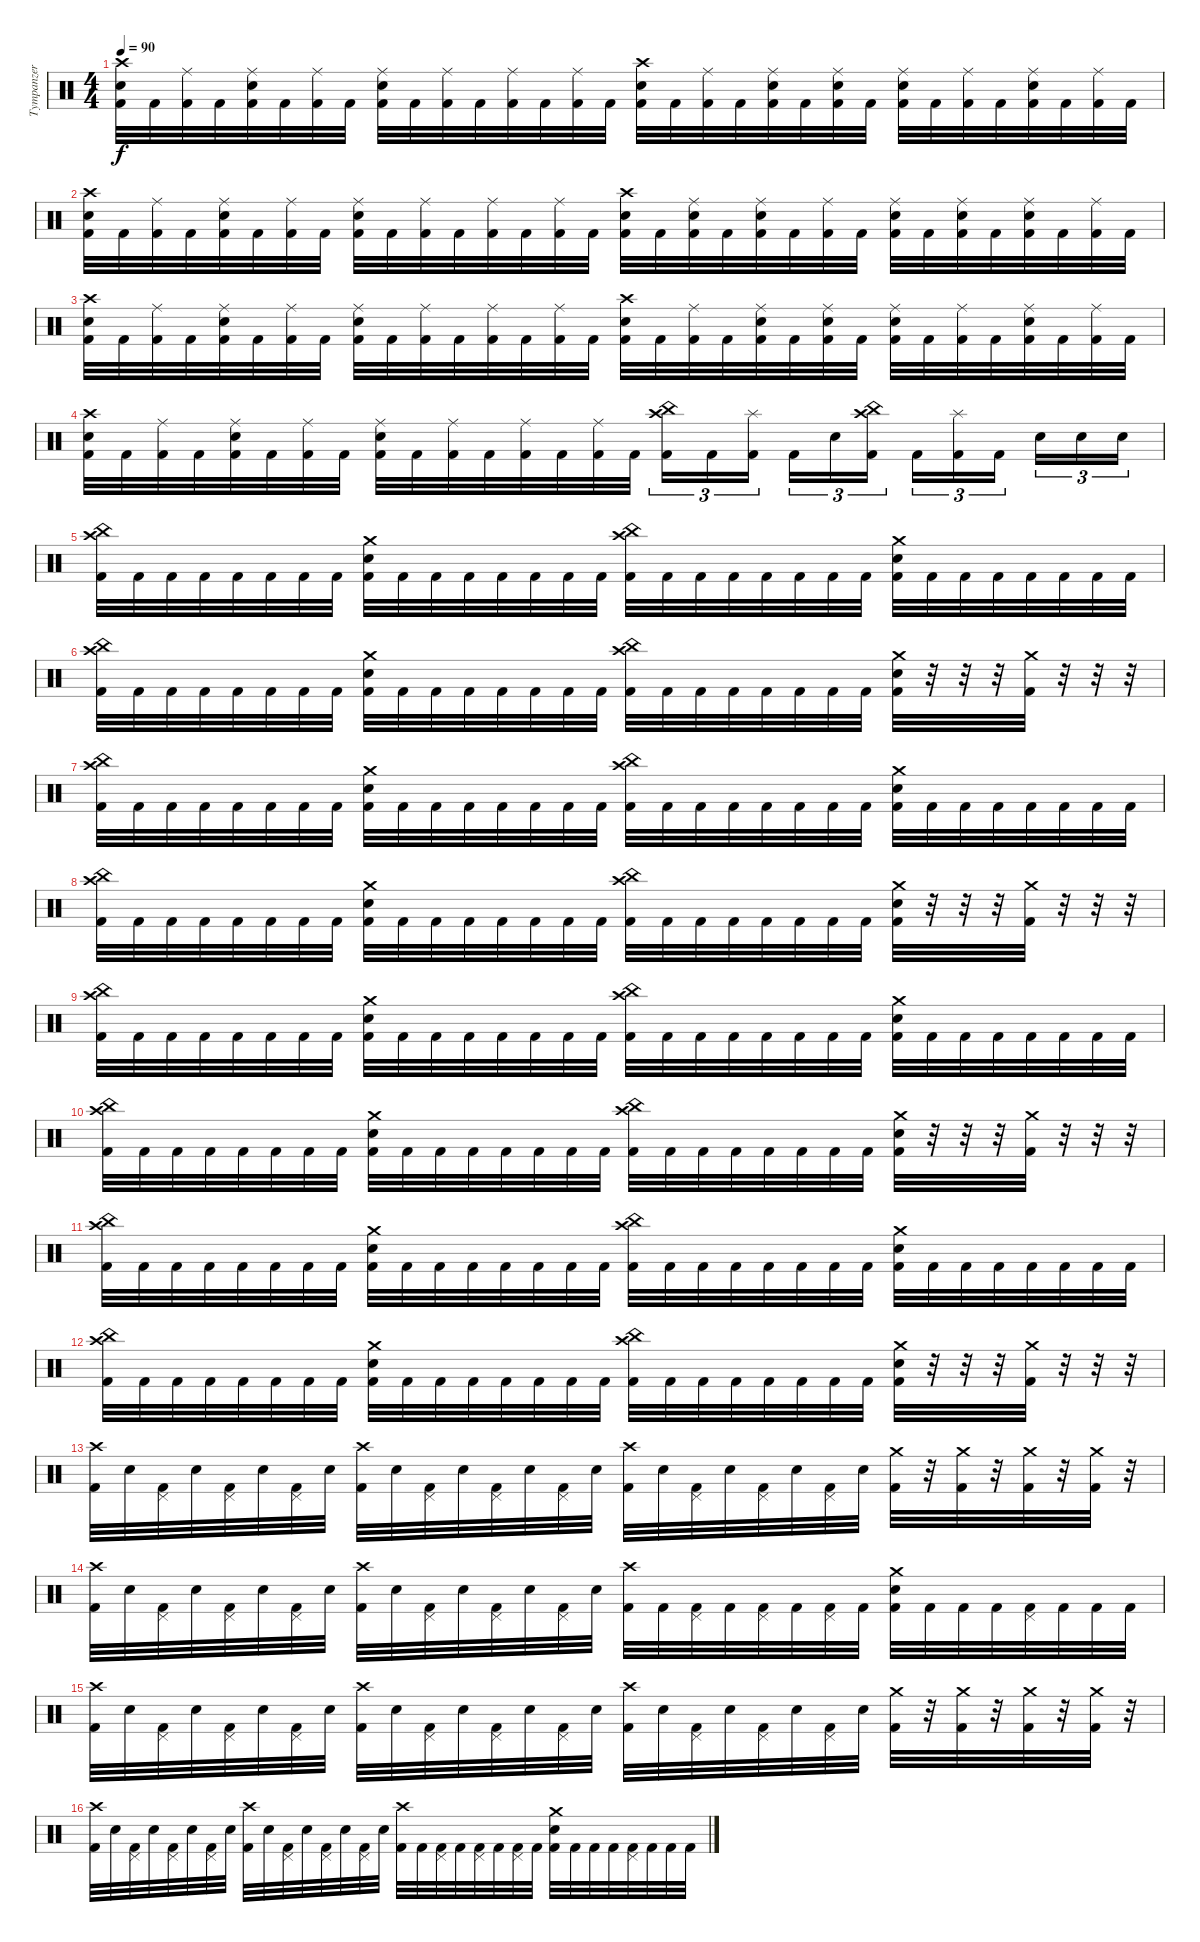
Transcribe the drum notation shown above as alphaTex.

\track ("Tympanzer" "Tympanzer") {instrument percussion}
\staff {score}
\articulation defaults
\ts (4 4)
\tempo 90
\clef neutral
\ks c
("Crash high (hit)" "Electric Snare (hit)" "Kick (hit) 2").32{dy f} "Kick (hit) 2".32 ("Ride (middle)" "Kick (hit) 2").32 "Kick (hit) 2".32 ("Ride (middle)" "Electric Snare (hit)" "Kick (hit) 2").32 "Kick (hit) 2".32 ("Ride (middle)" "Kick (hit) 2").32 "Kick (hit) 2".32 ("Ride (middle)" "Electric Snare (hit)" "Kick (hit) 2").32 "Kick (hit) 2".32 ("Ride (middle)" "Kick (hit) 2").32 "Kick (hit) 2".32 ("Ride (middle)" "Kick (hit) 2").32 "Kick (hit) 2".32 ("Ride (middle)" "Kick (hit) 2").32 "Kick (hit) 2".32 ("Crash high (hit)" "Electric Snare (hit)" "Kick (hit) 2").32 "Kick (hit) 2".32 ("Ride (middle)" "Kick (hit) 2").32 "Kick (hit) 2".32 ("Ride (middle)" "Electric Snare (hit)" "Kick (hit) 2").32 "Kick (hit) 2".32 ("Ride (middle)" "Electric Snare (hit)" "Kick (hit) 2").32 "Kick (hit) 2".32 ("Ride (middle)" "Electric Snare (hit)" "Kick (hit) 2").32 "Kick (hit) 2".32 ("Ride (middle)" "Kick (hit) 2").32 "Kick (hit) 2".32 ("Ride (middle)" "Electric Snare (hit)" "Kick (hit) 2").32 "Kick (hit) 2".32 ("Ride (middle)" "Kick (hit) 2").32 "Kick (hit) 2".32 |
("Crash high (hit)" "Electric Snare (hit)" "Kick (hit) 2").32 "Kick (hit) 2".32 ("Ride (middle)" "Kick (hit) 2").32 "Kick (hit) 2".32 ("Ride (middle)" "Electric Snare (hit)" "Kick (hit) 2").32 "Kick (hit) 2".32 ("Ride (middle)" "Kick (hit) 2").32 "Kick (hit) 2".32 ("Ride (middle)" "Electric Snare (hit)" "Kick (hit) 2").32 "Kick (hit) 2".32 ("Ride (middle)" "Kick (hit) 2").32 "Kick (hit) 2".32 ("Ride (middle)" "Kick (hit) 2").32 "Kick (hit) 2".32 ("Ride (middle)" "Kick (hit) 2").32 "Kick (hit) 2".32 ("Crash high (hit)" "Electric Snare (hit)" "Kick (hit) 2").32 "Kick (hit) 2".32 ("Ride (middle)" "Electric Snare (hit)" "Kick (hit) 2").32 "Kick (hit) 2".32 ("Ride (middle)" "Electric Snare (hit)" "Kick (hit) 2").32 "Kick (hit) 2".32 ("Ride (middle)" "Kick (hit) 2").32 "Kick (hit) 2".32 ("Ride (middle)" "Electric Snare (hit)" "Kick (hit) 2").32 "Kick (hit) 2".32 ("Ride (middle)" "Electric Snare (hit)" "Kick (hit) 2").32 "Kick (hit) 2".32 ("Ride (middle)" "Electric Snare (hit)" "Kick (hit) 2").32 "Kick (hit) 2".32 ("Ride (middle)" "Kick (hit) 2").32 "Kick (hit) 2".32 |
("Crash high (hit)" "Electric Snare (hit)" "Kick (hit) 2").32 "Kick (hit) 2".32 ("Ride (middle)" "Kick (hit) 2").32 "Kick (hit) 2".32 ("Ride (middle)" "Electric Snare (hit)" "Kick (hit) 2").32 "Kick (hit) 2".32 ("Ride (middle)" "Kick (hit) 2").32 "Kick (hit) 2".32 ("Ride (middle)" "Electric Snare (hit)" "Kick (hit) 2").32 "Kick (hit) 2".32 ("Ride (middle)" "Kick (hit) 2").32 "Kick (hit) 2".32 ("Ride (middle)" "Kick (hit) 2").32 "Kick (hit) 2".32 ("Ride (middle)" "Kick (hit) 2").32 "Kick (hit) 2".32 ("Crash high (hit)" "Electric Snare (hit)" "Kick (hit) 2").32 "Kick (hit) 2".32 ("Ride (middle)" "Kick (hit) 2").32 "Kick (hit) 2".32 ("Ride (middle)" "Electric Snare (hit)" "Kick (hit) 2").32 "Kick (hit) 2".32 ("Ride (middle)" "Electric Snare (hit)" "Kick (hit) 2").32 "Kick (hit) 2".32 ("Ride (middle)" "Electric Snare (hit)" "Kick (hit) 2").32 "Kick (hit) 2".32 ("Ride (middle)" "Kick (hit) 2").32 "Kick (hit) 2".32 ("Ride (middle)" "Electric Snare (hit)" "Kick (hit) 2").32 "Kick (hit) 2".32 ("Ride (middle)" "Kick (hit) 2").32 "Kick (hit) 2".32 |
("Crash high (hit)" "Electric Snare (hit)" "Kick (hit) 2").32 "Kick (hit) 2".32 ("Ride (middle)" "Kick (hit) 2").32 "Kick (hit) 2".32 ("Ride (middle)" "Electric Snare (hit)" "Kick (hit) 2").32 "Kick (hit) 2".32 ("Ride (middle)" "Kick (hit) 2").32 "Kick (hit) 2".32 ("Ride (middle)" "Electric Snare (hit)" "Kick (hit) 2").32 "Kick (hit) 2".32 ("Ride (middle)" "Kick (hit) 2").32 "Kick (hit) 2".32 ("Ride (middle)" "Kick (hit) 2").32 "Kick (hit) 2".32 ("Ride (middle)" "Kick (hit) 2").32 "Kick (hit) 2".32 ("China (hit)" "Crash high (hit)" "Kick (hit) 2").16{tu (3 2)} "Kick (hit) 2".16{tu (3 2)} ("Splash (hit)" "Kick (hit) 2").16{tu (3 2) beam splitsecondary} "Kick (hit) 2".16{tu (3 2)} "Electric Snare (hit)".16{tu (3 2)} ("China (hit)" "Crash high (hit)" "Kick (hit) 2").16{tu (3 2)} "Kick (hit) 2".16{tu (3 2)} ("Splash (hit)" "Kick (hit) 2").16{tu (3 2)} "Kick (hit) 2".16{tu (3 2) beam splitsecondary} "Electric Snare (hit)".16{tu (3 2)} "Electric Snare (hit)".16{tu (3 2)} "Electric Snare (hit)".16{tu (3 2)} |
("China (hit)" "Crash high (hit)" "Kick (hit) 2").32 "Kick (hit) 2".32 "Kick (hit) 2".32 "Kick (hit) 2".32 "Kick (hit) 2".32 "Kick (hit) 2".32 "Kick (hit) 2".32 "Kick (hit) 2".32 ("Crash medium (hit)" "Electric Snare (hit)" "Kick (hit) 2").32 "Kick (hit) 2".32 "Kick (hit) 2".32 "Kick (hit) 2".32 "Kick (hit) 2".32 "Kick (hit) 2".32 "Kick (hit) 2".32 "Kick (hit) 2".32 ("China (hit)" "Crash high (hit)" "Kick (hit) 2").32 "Kick (hit) 2".32 "Kick (hit) 2".32 "Kick (hit) 2".32 "Kick (hit) 2".32 "Kick (hit) 2".32 "Kick (hit) 2".32 "Kick (hit) 2".32 ("Crash medium (hit)" "Electric Snare (hit)" "Kick (hit) 2").32 "Kick (hit) 2".32 "Kick (hit) 2".32 "Kick (hit) 2".32 "Kick (hit) 2".32 "Kick (hit) 2".32 "Kick (hit) 2".32 "Kick (hit) 2".32 |
("China (hit)" "Crash high (hit)" "Kick (hit) 2").32 "Kick (hit) 2".32 "Kick (hit) 2".32 "Kick (hit) 2".32 "Kick (hit) 2".32 "Kick (hit) 2".32 "Kick (hit) 2".32 "Kick (hit) 2".32 ("Crash medium (hit)" "Electric Snare (hit)" "Kick (hit) 2").32 "Kick (hit) 2".32 "Kick (hit) 2".32 "Kick (hit) 2".32 "Kick (hit) 2".32 "Kick (hit) 2".32 "Kick (hit) 2".32 "Kick (hit) 2".32 ("China (hit)" "Crash high (hit)" "Kick (hit) 2").32 "Kick (hit) 2".32 "Kick (hit) 2".32 "Kick (hit) 2".32 "Kick (hit) 2".32 "Kick (hit) 2".32 "Kick (hit) 2".32 "Kick (hit) 2".32 ("Crash medium (hit)" "Electric Snare (hit)" "Kick (hit) 2").32 r.32 r.32 r.32 ("Crash medium (hit)" "Kick (hit) 2").32 r.32 r.32 r.32 |
("China (hit)" "Crash high (hit)" "Kick (hit) 2").32 "Kick (hit) 2".32 "Kick (hit) 2".32 "Kick (hit) 2".32 "Kick (hit) 2".32 "Kick (hit) 2".32 "Kick (hit) 2".32 "Kick (hit) 2".32 ("Crash medium (hit)" "Electric Snare (hit)" "Kick (hit) 2").32 "Kick (hit) 2".32 "Kick (hit) 2".32 "Kick (hit) 2".32 "Kick (hit) 2".32 "Kick (hit) 2".32 "Kick (hit) 2".32 "Kick (hit) 2".32 ("China (hit)" "Crash high (hit)" "Kick (hit) 2").32 "Kick (hit) 2".32 "Kick (hit) 2".32 "Kick (hit) 2".32 "Kick (hit) 2".32 "Kick (hit) 2".32 "Kick (hit) 2".32 "Kick (hit) 2".32 ("Crash medium (hit)" "Electric Snare (hit)" "Kick (hit) 2").32 "Kick (hit) 2".32 "Kick (hit) 2".32 "Kick (hit) 2".32 "Kick (hit) 2".32 "Kick (hit) 2".32 "Kick (hit) 2".32 "Kick (hit) 2".32 |
("China (hit)" "Crash high (hit)" "Kick (hit) 2").32 "Kick (hit) 2".32 "Kick (hit) 2".32 "Kick (hit) 2".32 "Kick (hit) 2".32 "Kick (hit) 2".32 "Kick (hit) 2".32 "Kick (hit) 2".32 ("Crash medium (hit)" "Electric Snare (hit)" "Kick (hit) 2").32 "Kick (hit) 2".32 "Kick (hit) 2".32 "Kick (hit) 2".32 "Kick (hit) 2".32 "Kick (hit) 2".32 "Kick (hit) 2".32 "Kick (hit) 2".32 ("China (hit)" "Crash high (hit)" "Kick (hit) 2").32 "Kick (hit) 2".32 "Kick (hit) 2".32 "Kick (hit) 2".32 "Kick (hit) 2".32 "Kick (hit) 2".32 "Kick (hit) 2".32 "Kick (hit) 2".32 ("Crash medium (hit)" "Electric Snare (hit)" "Kick (hit) 2").32 r.32 r.32 r.32 ("Crash medium (hit)" "Kick (hit) 2").32 r.32 r.32 r.32 |
("China (hit)" "Crash high (hit)" "Kick (hit) 2").32 "Kick (hit) 2".32 "Kick (hit) 2".32 "Kick (hit) 2".32 "Kick (hit) 2".32 "Kick (hit) 2".32 "Kick (hit) 2".32 "Kick (hit) 2".32 ("Crash medium (hit)" "Electric Snare (hit)" "Kick (hit) 2").32 "Kick (hit) 2".32 "Kick (hit) 2".32 "Kick (hit) 2".32 "Kick (hit) 2".32 "Kick (hit) 2".32 "Kick (hit) 2".32 "Kick (hit) 2".32 ("China (hit)" "Crash high (hit)" "Kick (hit) 2").32 "Kick (hit) 2".32 "Kick (hit) 2".32 "Kick (hit) 2".32 "Kick (hit) 2".32 "Kick (hit) 2".32 "Kick (hit) 2".32 "Kick (hit) 2".32 ("Crash medium (hit)" "Electric Snare (hit)" "Kick (hit) 2").32 "Kick (hit) 2".32 "Kick (hit) 2".32 "Kick (hit) 2".32 "Kick (hit) 2".32 "Kick (hit) 2".32 "Kick (hit) 2".32 "Kick (hit) 2".32 |
("China (hit)" "Crash high (hit)" "Kick (hit) 2").32 "Kick (hit) 2".32 "Kick (hit) 2".32 "Kick (hit) 2".32 "Kick (hit) 2".32 "Kick (hit) 2".32 "Kick (hit) 2".32 "Kick (hit) 2".32 ("Crash medium (hit)" "Electric Snare (hit)" "Kick (hit) 2").32 "Kick (hit) 2".32 "Kick (hit) 2".32 "Kick (hit) 2".32 "Kick (hit) 2".32 "Kick (hit) 2".32 "Kick (hit) 2".32 "Kick (hit) 2".32 ("China (hit)" "Crash high (hit)" "Kick (hit) 2").32 "Kick (hit) 2".32 "Kick (hit) 2".32 "Kick (hit) 2".32 "Kick (hit) 2".32 "Kick (hit) 2".32 "Kick (hit) 2".32 "Kick (hit) 2".32 ("Crash medium (hit)" "Electric Snare (hit)" "Kick (hit) 2").32 r.32 r.32 r.32 ("Crash medium (hit)" "Kick (hit) 2").32 r.32 r.32 r.32 |
("China (hit)" "Crash high (hit)" "Kick (hit) 2").32 "Kick (hit) 2".32 "Kick (hit) 2".32 "Kick (hit) 2".32 "Kick (hit) 2".32 "Kick (hit) 2".32 "Kick (hit) 2".32 "Kick (hit) 2".32 ("Crash medium (hit)" "Electric Snare (hit)" "Kick (hit) 2").32 "Kick (hit) 2".32 "Kick (hit) 2".32 "Kick (hit) 2".32 "Kick (hit) 2".32 "Kick (hit) 2".32 "Kick (hit) 2".32 "Kick (hit) 2".32 ("China (hit)" "Crash high (hit)" "Kick (hit) 2").32 "Kick (hit) 2".32 "Kick (hit) 2".32 "Kick (hit) 2".32 "Kick (hit) 2".32 "Kick (hit) 2".32 "Kick (hit) 2".32 "Kick (hit) 2".32 ("Crash medium (hit)" "Electric Snare (hit)" "Kick (hit) 2").32 "Kick (hit) 2".32 "Kick (hit) 2".32 "Kick (hit) 2".32 "Kick (hit) 2".32 "Kick (hit) 2".32 "Kick (hit) 2".32 "Kick (hit) 2".32 |
("China (hit)" "Crash high (hit)" "Kick (hit) 2").32 "Kick (hit) 2".32 "Kick (hit) 2".32 "Kick (hit) 2".32 "Kick (hit) 2".32 "Kick (hit) 2".32 "Kick (hit) 2".32 "Kick (hit) 2".32 ("Crash medium (hit)" "Electric Snare (hit)" "Kick (hit) 2").32 "Kick (hit) 2".32 "Kick (hit) 2".32 "Kick (hit) 2".32 "Kick (hit) 2".32 "Kick (hit) 2".32 "Kick (hit) 2".32 "Kick (hit) 2".32 ("China (hit)" "Crash high (hit)" "Kick (hit) 2").32 "Kick (hit) 2".32 "Kick (hit) 2".32 "Kick (hit) 2".32 "Kick (hit) 2".32 "Kick (hit) 2".32 "Kick (hit) 2".32 "Kick (hit) 2".32 ("Crash medium (hit)" "Electric Snare (hit)" "Kick (hit) 2").32 r.32 r.32 r.32 ("Crash medium (hit)" "Kick (hit) 2").32 r.32 r.32 r.32 |
("Crash high (hit)" "Kick (hit) 2").32 "Electric Snare (hit)".32 ("Pedal Hi-Hat (hit)" "Kick (hit) 2").32 "Electric Snare (hit)".32 ("Pedal Hi-Hat (hit)" "Kick (hit) 2").32 "Electric Snare (hit)".32 ("Pedal Hi-Hat (hit)" "Kick (hit) 2").32 "Electric Snare (hit)".32 ("Crash high (hit)" "Kick (hit) 2").32 "Electric Snare (hit)".32 ("Pedal Hi-Hat (hit)" "Kick (hit) 2").32 "Electric Snare (hit)".32 ("Pedal Hi-Hat (hit)" "Kick (hit) 2").32 "Electric Snare (hit)".32 ("Pedal Hi-Hat (hit)" "Kick (hit) 2").32 "Electric Snare (hit)".32 ("Crash high (hit)" "Kick (hit) 2").32 "Electric Snare (hit)".32 ("Pedal Hi-Hat (hit)" "Kick (hit) 2").32 "Electric Snare (hit)".32 ("Pedal Hi-Hat (hit)" "Kick (hit) 2").32 "Electric Snare (hit)".32 ("Pedal Hi-Hat (hit)" "Kick (hit) 2").32 "Electric Snare (hit)".32 ("Crash medium (hit)" "Kick (hit) 2").32 r.32 ("Crash medium (hit)" "Kick (hit) 2").32 r.32 ("Crash medium (hit)" "Kick (hit) 2").32 r.32 ("Crash medium (hit)" "Kick (hit) 2").32 r.32 |
("Crash high (hit)" "Kick (hit) 2").32 "Electric Snare (hit)".32 ("Pedal Hi-Hat (hit)" "Kick (hit) 2").32 "Electric Snare (hit)".32 ("Pedal Hi-Hat (hit)" "Kick (hit) 2").32 "Electric Snare (hit)".32 ("Pedal Hi-Hat (hit)" "Kick (hit) 2").32 "Electric Snare (hit)".32 ("Crash high (hit)" "Kick (hit) 2").32 "Electric Snare (hit)".32 ("Pedal Hi-Hat (hit)" "Kick (hit) 2").32 "Electric Snare (hit)".32 ("Pedal Hi-Hat (hit)" "Kick (hit) 2").32 "Electric Snare (hit)".32 ("Pedal Hi-Hat (hit)" "Kick (hit) 2").32 "Electric Snare (hit)".32 ("Crash high (hit)" "Kick (hit) 2").32 "Kick (hit) 2".32 ("Pedal Hi-Hat (hit)" "Kick (hit) 2").32 "Kick (hit) 2".32 ("Pedal Hi-Hat (hit)" "Kick (hit) 2").32 "Kick (hit) 2".32 ("Pedal Hi-Hat (hit)" "Kick (hit) 2").32 "Kick (hit) 2".32 ("Crash medium (hit)" "Electric Snare (hit)" "Kick (hit) 2").32 "Kick (hit) 2".32 "Kick (hit) 2".32 "Kick (hit) 2".32 ("Pedal Hi-Hat (hit)" "Kick (hit) 2").32 "Kick (hit) 2".32 "Kick (hit) 2".32 "Kick (hit) 2".32 |
("Crash high (hit)" "Kick (hit) 2").32 "Electric Snare (hit)".32 ("Pedal Hi-Hat (hit)" "Kick (hit) 2").32 "Electric Snare (hit)".32 ("Pedal Hi-Hat (hit)" "Kick (hit) 2").32 "Electric Snare (hit)".32 ("Pedal Hi-Hat (hit)" "Kick (hit) 2").32 "Electric Snare (hit)".32 ("Crash high (hit)" "Kick (hit) 2").32 "Electric Snare (hit)".32 ("Pedal Hi-Hat (hit)" "Kick (hit) 2").32 "Electric Snare (hit)".32 ("Pedal Hi-Hat (hit)" "Kick (hit) 2").32 "Electric Snare (hit)".32 ("Pedal Hi-Hat (hit)" "Kick (hit) 2").32 "Electric Snare (hit)".32 ("Crash high (hit)" "Kick (hit) 2").32 "Electric Snare (hit)".32 ("Pedal Hi-Hat (hit)" "Kick (hit) 2").32 "Electric Snare (hit)".32 ("Pedal Hi-Hat (hit)" "Kick (hit) 2").32 "Electric Snare (hit)".32 ("Pedal Hi-Hat (hit)" "Kick (hit) 2").32 "Electric Snare (hit)".32 ("Crash medium (hit)" "Kick (hit) 2").32 r.32 ("Crash medium (hit)" "Kick (hit) 2").32 r.32 ("Crash medium (hit)" "Kick (hit) 2").32 r.32 ("Crash medium (hit)" "Kick (hit) 2").32 r.32 |
("Crash high (hit)" "Kick (hit) 2").32 "Electric Snare (hit)".32 ("Pedal Hi-Hat (hit)" "Kick (hit) 2").32 "Electric Snare (hit)".32 ("Pedal Hi-Hat (hit)" "Kick (hit) 2").32 "Electric Snare (hit)".32 ("Pedal Hi-Hat (hit)" "Kick (hit) 2").32 "Electric Snare (hit)".32 ("Crash high (hit)" "Kick (hit) 2").32 "Electric Snare (hit)".32 ("Pedal Hi-Hat (hit)" "Kick (hit) 2").32 "Electric Snare (hit)".32 ("Pedal Hi-Hat (hit)" "Kick (hit) 2").32 "Electric Snare (hit)".32 ("Pedal Hi-Hat (hit)" "Kick (hit) 2").32 "Electric Snare (hit)".32 ("Crash high (hit)" "Kick (hit) 2").32 "Kick (hit) 2".32 ("Pedal Hi-Hat (hit)" "Kick (hit) 2").32 "Kick (hit) 2".32 ("Pedal Hi-Hat (hit)" "Kick (hit) 2").32 "Kick (hit) 2".32 ("Pedal Hi-Hat (hit)" "Kick (hit) 2").32 "Kick (hit) 2".32 ("Crash medium (hit)" "Electric Snare (hit)" "Kick (hit) 2").32 "Kick (hit) 2".32 "Kick (hit) 2".32 "Kick (hit) 2".32 ("Pedal Hi-Hat (hit)" "Kick (hit) 2").32 "Kick (hit) 2".32 "Kick (hit) 2".32 "Kick (hit) 2".32
